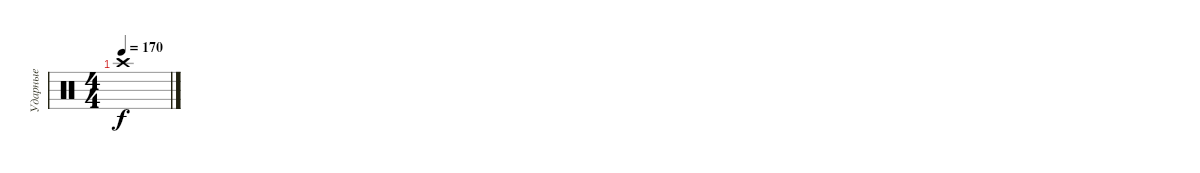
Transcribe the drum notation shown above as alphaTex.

\track ("Ударные" "Ударные") {instrument percussion}
\staff {score}
\articulation defaults
\ts (4 4)
\tempo 170
\clef neutral
\ks c "Crash high (hit)".1{dy f}
